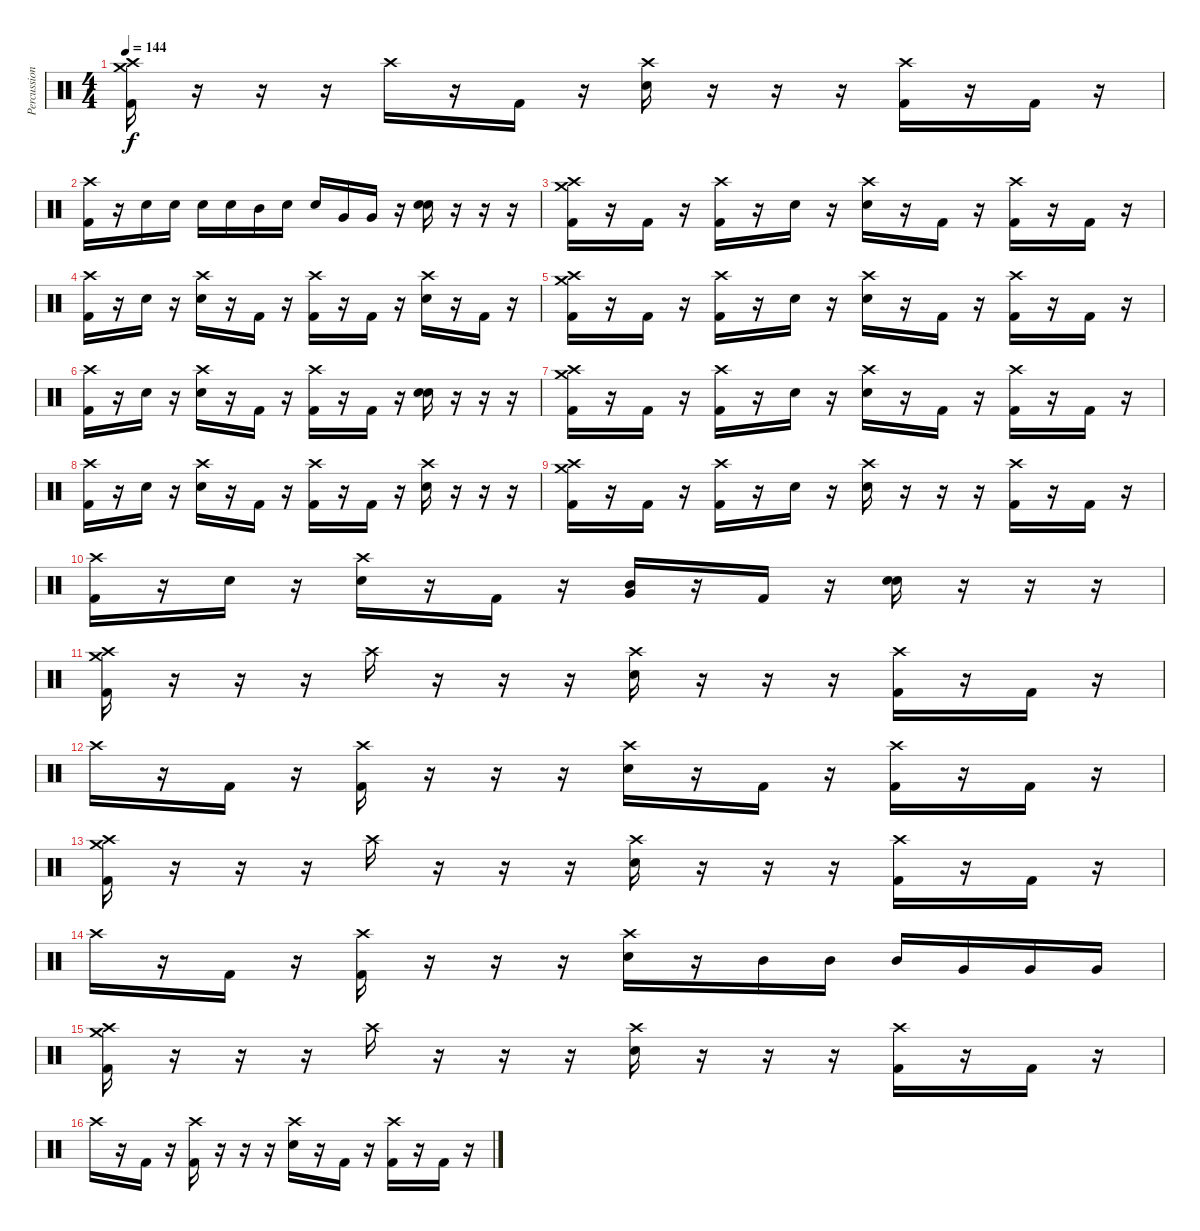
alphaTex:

\track ("Percussion" "Percussion") {instrument percussion}
\staff {score}
\articulation defaults
\ts (4 4)
\tempo 144
\clef neutral
\ks c
("Crash medium (hit)" "Crash high (hit)" "Kick (hit) 2").16{dy f} r.16 r.16 r.16 "Crash high (hit)".16 r.16 "Kick (hit) 2".16 r.16 ("Crash high (hit)" "Electric Snare (hit)").16 r.16 r.16 r.16 ("Crash high (hit)" "Kick (hit) 2").16 r.16 "Kick (hit) 2".16 r.16 |
("Crash high (hit)" "Kick (hit) 2").16 r.16 "Electric Snare (hit)".16 "Electric Snare (hit)".16 "Electric Snare (hit)".16 "Electric Snare (hit)".16 "Mid Tom (hit)".16 "Electric Snare (hit)".16 "Electric Snare (hit)".16 "Very Low Tom (hit)".16 "Very Low Tom (hit)".16 r.16 ("Electric Snare (hit)" "Electric Snare (hit)").16{bd 480} r.16 r.16 r.16 |
("Crash medium (hit)" "Crash high (hit)" "Kick (hit) 2").16 r.16 "Kick (hit) 2".16 r.16 ("Crash high (hit)" "Kick (hit) 2").16 r.16 "Electric Snare (hit)".16 r.16 ("Crash high (hit)" "Electric Snare (hit)").16 r.16 "Kick (hit) 2".16 r.16 ("Crash high (hit)" "Kick (hit) 2").16 r.16 "Kick (hit) 2".16 r.16 |
("Crash high (hit)" "Kick (hit) 2").16 r.16 "Electric Snare (hit)".16 r.16 ("Crash high (hit)" "Electric Snare (hit)").16 r.16 "Kick (hit) 2".16 r.16 ("Crash high (hit)" "Kick (hit) 2").16 r.16 "Kick (hit) 2".16 r.16 ("Crash high (hit)" "Electric Snare (hit)").16 r.16 "Kick (hit) 2".16 r.16 |
("Crash medium (hit)" "Crash high (hit)" "Kick (hit) 2").16 r.16 "Kick (hit) 2".16 r.16 ("Crash high (hit)" "Kick (hit) 2").16 r.16 "Electric Snare (hit)".16 r.16 ("Crash high (hit)" "Electric Snare (hit)").16 r.16 "Kick (hit) 2".16 r.16 ("Crash high (hit)" "Kick (hit) 2").16 r.16 "Kick (hit) 2".16 r.16 |
("Crash high (hit)" "Kick (hit) 2").16 r.16 "Electric Snare (hit)".16 r.16 ("Crash high (hit)" "Electric Snare (hit)").16 r.16 "Kick (hit) 2".16 r.16 ("Crash high (hit)" "Kick (hit) 2").16 r.16 "Kick (hit) 2".16 r.16 ("Electric Snare (hit)" "Electric Snare (hit)").16{bd 480} r.16 r.16 r.16 |
("Crash medium (hit)" "Crash high (hit)" "Kick (hit) 2").16 r.16 "Kick (hit) 2".16 r.16 ("Crash high (hit)" "Kick (hit) 2").16 r.16 "Electric Snare (hit)".16 r.16 ("Crash high (hit)" "Electric Snare (hit)").16 r.16 "Kick (hit) 2".16 r.16 ("Crash high (hit)" "Kick (hit) 2").16 r.16 "Kick (hit) 2".16 r.16 |
("Crash high (hit)" "Kick (hit) 2").16 r.16 "Electric Snare (hit)".16 r.16 ("Crash high (hit)" "Electric Snare (hit)").16 r.16 "Kick (hit) 2".16 r.16 ("Crash high (hit)" "Kick (hit) 2").16 r.16 "Kick (hit) 2".16 r.16 ("Crash high (hit)" "Electric Snare (hit)").16 r.16 r.16 r.16 |
("Crash medium (hit)" "Crash high (hit)" "Kick (hit) 2").16 r.16 "Kick (hit) 2".16 r.16 ("Crash high (hit)" "Kick (hit) 2").16 r.16 "Electric Snare (hit)".16 r.16 ("Crash high (hit)" "Electric Snare (hit)").16 r.16 r.16 r.16 ("Crash high (hit)" "Kick (hit) 2").16 r.16 "Kick (hit) 2".16 r.16 |
("Crash high (hit)" "Kick (hit) 2").16 r.16 "Electric Snare (hit)".16 r.16 ("Crash high (hit)" "Electric Snare (hit)").16 r.16 "Kick (hit) 2".16 r.16 ("Mid Tom (hit)" "Very Low Tom (hit)").16 r.16 "Kick (hit) 2".16 r.16 ("Electric Snare (hit)" "Electric Snare (hit)").16{bd 480} r.16 r.16 r.16 |
("Crash medium (hit)" "Crash high (hit)" "Kick (hit) 2").16 r.16 r.16 r.16 "Crash high (hit)".16 r.16 r.16 r.16 ("Crash high (hit)" "Electric Snare (hit)").16 r.16 r.16 r.16 ("Crash high (hit)" "Kick (hit) 2").16 r.16 "Kick (hit) 2".16 r.16 |
"Crash high (hit)".16 r.16 "Kick (hit) 2".16 r.16 ("Crash high (hit)" "Kick (hit) 2").16 r.16 r.16 r.16 ("Crash high (hit)" "Electric Snare (hit)").16 r.16 "Kick (hit) 2".16 r.16 ("Crash high (hit)" "Kick (hit) 2").16 r.16 "Kick (hit) 2".16 r.16 |
("Crash medium (hit)" "Crash high (hit)" "Kick (hit) 2").16 r.16 r.16 r.16 "Crash high (hit)".16 r.16 r.16 r.16 ("Crash high (hit)" "Electric Snare (hit)").16 r.16 r.16 r.16 ("Crash high (hit)" "Kick (hit) 2").16 r.16 "Kick (hit) 2".16 r.16 |
"Crash high (hit)".16 r.16 "Kick (hit) 2".16 r.16 ("Crash high (hit)" "Kick (hit) 2").16 r.16 r.16 r.16 ("Crash high (hit)" "Electric Snare (hit)").16 r.16 "Mid Tom (hit)".16 "Mid Tom (hit)".16 "Mid Tom (hit)".16 "Very Low Tom (hit)".16 "Very Low Tom (hit)".16 "Very Low Tom (hit)".16 |
("Crash medium (hit)" "Crash high (hit)" "Kick (hit) 2").16 r.16 r.16 r.16 "Crash high (hit)".16 r.16 r.16 r.16 ("Crash high (hit)" "Electric Snare (hit)").16 r.16 r.16 r.16 ("Crash high (hit)" "Kick (hit) 2").16 r.16 "Kick (hit) 2".16 r.16 |
"Crash high (hit)".16 r.16 "Kick (hit) 2".16 r.16 ("Crash high (hit)" "Kick (hit) 2").16 r.16 r.16 r.16 ("Crash high (hit)" "Electric Snare (hit)").16 r.16 "Kick (hit) 2".16 r.16 ("Crash high (hit)" "Kick (hit) 2").16 r.16 "Kick (hit) 2".16 r.16
